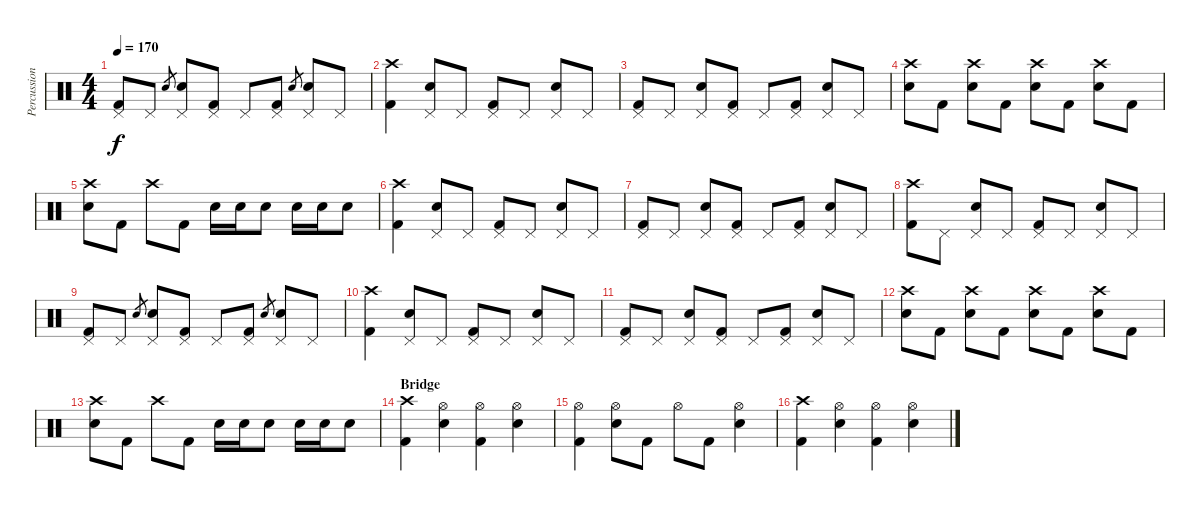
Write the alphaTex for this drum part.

\track ("Percussions" "Percussion") {instrument percussion}
\staff {score}
\articulation defaults
\ts (4 4)
\tempo 170
\clef neutral
\ks c
("Pedal Hi-Hat (hit)" "Kick (hit) 2").8{dy f} "Pedal Hi-Hat (hit)".8 "Electric Snare (hit)".8{gr} ("Pedal Hi-Hat (hit)" "Electric Snare (hit)").8 ("Pedal Hi-Hat (hit)" "Kick (hit) 2").8 "Pedal Hi-Hat (hit)".8 ("Pedal Hi-Hat (hit)" "Kick (hit) 2").8 "Electric Snare (hit)".8{gr} ("Pedal Hi-Hat (hit)" "Electric Snare (hit)").8 "Pedal Hi-Hat (hit)".8 |
("Crash high (hit)" "Kick (hit) 2").4 ("Pedal Hi-Hat (hit)" "Electric Snare (hit)").8 "Pedal Hi-Hat (hit)".8 ("Pedal Hi-Hat (hit)" "Kick (hit) 2").8 "Pedal Hi-Hat (hit)".8 ("Pedal Hi-Hat (hit)" "Electric Snare (hit)").8 "Pedal Hi-Hat (hit)".8 |
("Pedal Hi-Hat (hit)" "Kick (hit) 2").8 "Pedal Hi-Hat (hit)".8 ("Pedal Hi-Hat (hit)" "Electric Snare (hit)").8 ("Pedal Hi-Hat (hit)" "Kick (hit) 2").8 "Pedal Hi-Hat (hit)".8 ("Pedal Hi-Hat (hit)" "Kick (hit) 2").8 ("Pedal Hi-Hat (hit)" "Electric Snare (hit)").8 "Pedal Hi-Hat (hit)".8 |
("Crash high (hit)" "Electric Snare (hit)").8 "Kick (hit) 2".8 ("Crash high (hit)" "Electric Snare (hit)").8 "Kick (hit) 2".8 ("Crash high (hit)" "Electric Snare (hit)").8 "Kick (hit) 2".8 ("Crash high (hit)" "Electric Snare (hit)").8 "Kick (hit) 2".8 |
("Crash high (hit)" "Electric Snare (hit)").8 "Kick (hit) 2".8 "Crash high (hit)".8 "Kick (hit) 2".8 "Electric Snare (hit)".16 "Electric Snare (hit)".16 "Electric Snare (hit)".8 "Electric Snare (hit)".16 "Electric Snare (hit)".16 "Electric Snare (hit)".8 |
("Crash high (hit)" "Kick (hit) 2").4 ("Pedal Hi-Hat (hit)" "Electric Snare (hit)").8 "Pedal Hi-Hat (hit)".8 ("Pedal Hi-Hat (hit)" "Kick (hit) 2").8 "Pedal Hi-Hat (hit)".8 ("Pedal Hi-Hat (hit)" "Electric Snare (hit)").8 "Pedal Hi-Hat (hit)".8 |
("Pedal Hi-Hat (hit)" "Kick (hit) 2").8 "Pedal Hi-Hat (hit)".8 ("Pedal Hi-Hat (hit)" "Electric Snare (hit)").8 ("Pedal Hi-Hat (hit)" "Kick (hit) 2").8 "Pedal Hi-Hat (hit)".8 ("Pedal Hi-Hat (hit)" "Kick (hit) 2").8 ("Pedal Hi-Hat (hit)" "Electric Snare (hit)").8 "Pedal Hi-Hat (hit)".8 |
("Crash high (hit)" "Kick (hit) 2").8 "Pedal Hi-Hat (hit)".8 ("Pedal Hi-Hat (hit)" "Electric Snare (hit)").8 "Pedal Hi-Hat (hit)".8 ("Pedal Hi-Hat (hit)" "Kick (hit) 2").8 "Pedal Hi-Hat (hit)".8 ("Pedal Hi-Hat (hit)" "Electric Snare (hit)").8 "Pedal Hi-Hat (hit)".8 |
("Pedal Hi-Hat (hit)" "Kick (hit) 2").8 "Pedal Hi-Hat (hit)".8 "Electric Snare (hit)".8{gr} ("Pedal Hi-Hat (hit)" "Electric Snare (hit)").8 ("Pedal Hi-Hat (hit)" "Kick (hit) 2").8 "Pedal Hi-Hat (hit)".8 ("Pedal Hi-Hat (hit)" "Kick (hit) 2").8 "Electric Snare (hit)".8{gr} ("Pedal Hi-Hat (hit)" "Electric Snare (hit)").8 "Pedal Hi-Hat (hit)".8 |
("Crash high (hit)" "Kick (hit) 2").4 ("Pedal Hi-Hat (hit)" "Electric Snare (hit)").8 "Pedal Hi-Hat (hit)".8 ("Pedal Hi-Hat (hit)" "Kick (hit) 2").8 "Pedal Hi-Hat (hit)".8 ("Pedal Hi-Hat (hit)" "Electric Snare (hit)").8 "Pedal Hi-Hat (hit)".8 |
("Pedal Hi-Hat (hit)" "Kick (hit) 2").8 "Pedal Hi-Hat (hit)".8 ("Pedal Hi-Hat (hit)" "Electric Snare (hit)").8 ("Pedal Hi-Hat (hit)" "Kick (hit) 2").8 "Pedal Hi-Hat (hit)".8 ("Pedal Hi-Hat (hit)" "Kick (hit) 2").8 ("Pedal Hi-Hat (hit)" "Electric Snare (hit)").8 "Pedal Hi-Hat (hit)".8 |
("Crash high (hit)" "Electric Snare (hit)").8 "Kick (hit) 2".8 ("Crash high (hit)" "Electric Snare (hit)").8 "Kick (hit) 2".8 ("Crash high (hit)" "Electric Snare (hit)").8 "Kick (hit) 2".8 ("Crash high (hit)" "Electric Snare (hit)").8 "Kick (hit) 2".8 |
("Crash high (hit)" "Electric Snare (hit)").8 "Kick (hit) 2".8 "Crash high (hit)".8 "Kick (hit) 2".8 "Electric Snare (hit)".16 "Electric Snare (hit)".16 "Electric Snare (hit)".8 "Electric Snare (hit)".16 "Electric Snare (hit)".16 "Electric Snare (hit)".8 |
\section ("" "Bridge")
("Crash high (hit)" "Kick (hit) 2").4 ("Hi-Hat (open)" "Electric Snare (hit)").4 ("Hi-Hat (open)" "Kick (hit) 2").4 ("Hi-Hat (open)" "Electric Snare (hit)").4 |
("Hi-Hat (open)" "Kick (hit) 2").4 ("Hi-Hat (open)" "Electric Snare (hit)").8 "Kick (hit) 2".8 "Hi-Hat (open)".8 "Kick (hit) 2".8 ("Hi-Hat (open)" "Electric Snare (hit)").4 |
("Crash high (hit)" "Kick (hit) 2").4 ("Hi-Hat (open)" "Electric Snare (hit)").4 ("Hi-Hat (open)" "Kick (hit) 2").4 ("Hi-Hat (open)" "Electric Snare (hit)").4
